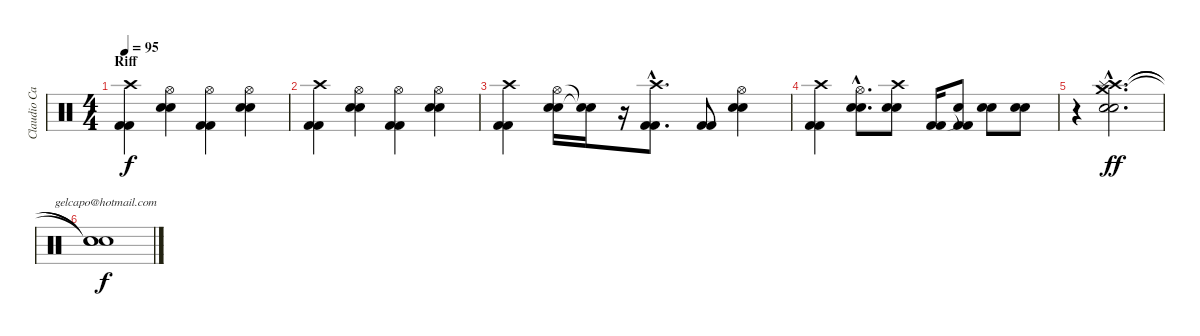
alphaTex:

\track ("Claudio Cardaci (bateria)" "Claudio Ca") {instrument percussion}
\staff {score}
\articulation defaults
\chord ("gelcapo@hotmail.com") {firstfret 0}
\ts (4 4)
\section ("" "Riff")
\tempo 95
\clef neutral
\ks c
("Crash high (hit)" "Kick (hit) 2" "Kick (hit) 2").4{dy f} ("Hi-Hat (open)" "Snare (hit) 2" "Snare (hit) 2").4 ("Hi-Hat (open)" "Kick (hit) 2" "Kick (hit) 2").4 ("Hi-Hat (open)" "Snare (hit) 2" "Snare (hit) 2").4 |
("Crash high (hit)" "Kick (hit) 2" "Kick (hit) 2").4 ("Hi-Hat (open)" "Snare (hit) 2" "Snare (hit) 2").4 ("Hi-Hat (open)" "Kick (hit) 2" "Kick (hit) 2").4 ("Hi-Hat (open)" "Snare (hit) 2" "Snare (hit) 2").4 |
("Crash high (hit)" "Kick (hit) 2" "Kick (hit) 2").4 ("Hi-Hat (open)" "Snare (hit) 2" "Snare (hit) 2").16 ("Snare (hit)"{t} "Snare (hit)"{t}).16 r.16 ("Crash high (hit)"{hac} "Kick (hit) 2"{hac} "Kick (hit) 2"{hac}).8{d} ("Kick (hit) 2" "Kick (hit) 2").8 ("Hi-Hat (open)" "Snare (hit) 2" "Snare (hit) 2").4 |
("Crash high (hit)" "Kick (hit) 2" "Kick (hit) 2").4 ("Hi-Hat (open)"{hac} "Snare (hit) 2"{hac} "Snare (hit) 2"{hac}).8{d} ("Crash high (hit)" "Electric Snare (hit)" "Snare (hit) 2").8 ("Kick (hit) 2" "Kick (hit) 2").16 ("Snare (hit)"{t} "Kick (hit) 2" "Kick (hit) 2").8 ("Electric Snare (hit)" "Snare (hit) 2").8 ("Electric Snare (hit)" "Snare (hit) 2").8 |
r.4 ("Crash medium (hit)"{hac} "Crash high (hit)"{hac} "Splash (hit)"{hac} "Snare (hit) 2"{hac} "Snare (hit) 2"{hac}).2{d dy ff} |
("Snare (hit)"{t} "Snare (hit)"{t} "Snare (hit)"{t}).1{ch "gelcapo@hotmail.com" dy f volume 0}
